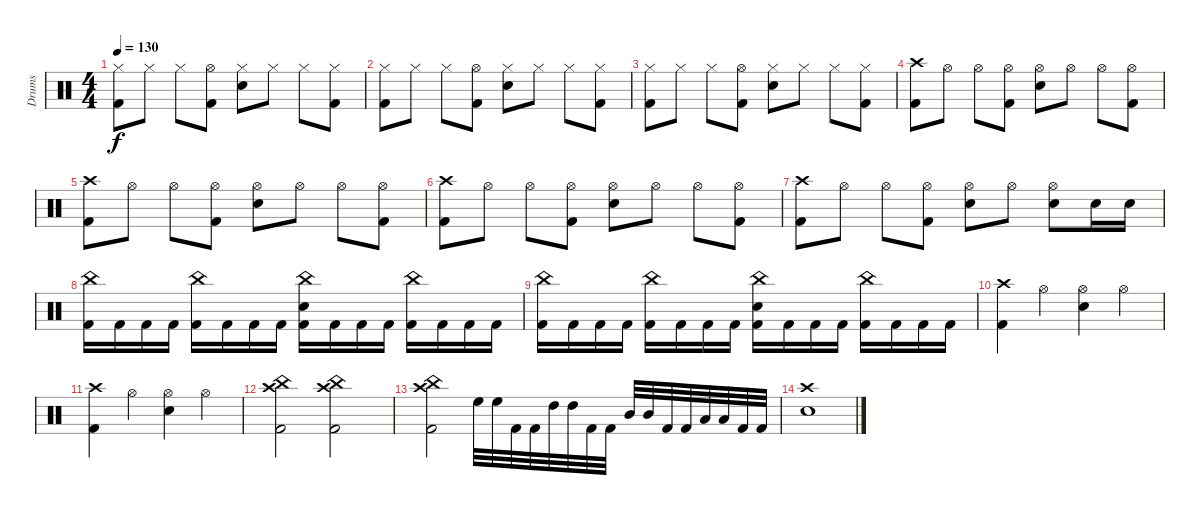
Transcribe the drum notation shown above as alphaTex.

\track ("Drums" "Drums") {instrument percussion}
\staff {score}
\articulation defaults
\ts (4 4)
\tempo 130
\clef neutral
\ks c
("Hi-Hat (closed)" "Kick (hit) 2").8{dy f} "Hi-Hat (closed)".8 "Hi-Hat (closed)".8 ("Hi-Hat (open)" "Kick (hit) 2").8 ("Hi-Hat (closed)" "Snare (hit) 2").8 "Hi-Hat (closed)".8 "Hi-Hat (closed)".8 ("Hi-Hat (closed)" "Kick (hit) 2").8 |
("Hi-Hat (closed)" "Kick (hit) 2").8 "Hi-Hat (closed)".8 "Hi-Hat (closed)".8 ("Hi-Hat (open)" "Kick (hit) 2").8 ("Hi-Hat (closed)" "Snare (hit) 2").8 "Hi-Hat (closed)".8 "Hi-Hat (closed)".8 ("Hi-Hat (closed)" "Kick (hit) 2").8 |
("Hi-Hat (closed)" "Kick (hit) 2").8 "Hi-Hat (closed)".8 "Hi-Hat (closed)".8 ("Hi-Hat (open)" "Kick (hit) 2").8 ("Hi-Hat (closed)" "Snare (hit) 2").8 "Hi-Hat (closed)".8 "Hi-Hat (closed)".8 ("Hi-Hat (closed)" "Kick (hit) 2").8 |
("Crash high (hit)" "Kick (hit) 2").8 "Hi-Hat (open)".8 "Hi-Hat (open)".8 ("Hi-Hat (open)" "Kick (hit) 2").8 ("Hi-Hat (open)" "Snare (hit) 2").8 "Hi-Hat (open)".8 "Hi-Hat (open)".8 ("Hi-Hat (open)" "Kick (hit) 2").8 |
("Crash high (hit)" "Kick (hit) 2").8 "Hi-Hat (open)".8 "Hi-Hat (open)".8 ("Hi-Hat (open)" "Kick (hit) 2").8 ("Hi-Hat (open)" "Snare (hit) 2").8 "Hi-Hat (open)".8 "Hi-Hat (open)".8 ("Hi-Hat (open)" "Kick (hit) 2").8 |
("Crash high (hit)" "Kick (hit) 2").8 "Hi-Hat (open)".8 "Hi-Hat (open)".8 ("Hi-Hat (open)" "Kick (hit) 2").8 ("Hi-Hat (open)" "Snare (hit) 2").8 "Hi-Hat (open)".8 "Hi-Hat (open)".8 ("Hi-Hat (open)" "Kick (hit) 2").8 |
("Crash high (hit)" "Kick (hit) 2").8 "Hi-Hat (open)".8 "Hi-Hat (open)".8 ("Hi-Hat (open)" "Kick (hit) 2").8 ("Hi-Hat (open)" "Snare (hit) 2").8 "Hi-Hat (open)".8 ("Hi-Hat (open)" "Snare (hit) 2").8 "Snare (hit) 2".16 "Snare (hit) 2".16 |
("China (hit)" "Kick (hit) 2").16 "Kick (hit) 2".16 "Kick (hit) 2".16 "Kick (hit) 2".16 ("China (hit)" "Kick (hit) 2").16 "Kick (hit) 2".16 "Kick (hit) 2".16 "Kick (hit) 2".16 ("China (hit)" "Snare (hit) 2" "Kick (hit) 2").16 "Kick (hit) 2".16 "Kick (hit) 2".16 "Kick (hit) 2".16 ("China (hit)" "Kick (hit) 2").16 "Kick (hit) 2".16 "Kick (hit) 2".16 "Kick (hit) 2".16 |
("China (hit)" "Kick (hit) 2").16 "Kick (hit) 2".16 "Kick (hit) 2".16 "Kick (hit) 2".16 ("China (hit)" "Kick (hit) 2").16 "Kick (hit) 2".16 "Kick (hit) 2".16 "Kick (hit) 2".16 ("China (hit)" "Snare (hit) 2" "Kick (hit) 2").16 "Kick (hit) 2".16 "Kick (hit) 2".16 "Kick (hit) 2".16 ("China (hit)" "Kick (hit) 2").16 "Kick (hit) 2".16 "Kick (hit) 2".16 "Kick (hit) 2".16 |
("Crash high (hit)" "Kick (hit) 2").4 "Hi-Hat (open)".4 ("Hi-Hat (open)" "Snare (hit) 2").4 "Hi-Hat (open)".4 |
("Crash high (hit)" "Kick (hit) 2").4 "Hi-Hat (open)".4 ("Hi-Hat (open)" "Snare (hit) 2").4 "Hi-Hat (open)".4 |
("Crash high (hit)" "China (hit)" "Kick (hit) 2").2 ("Crash high (hit)" "China (hit)" "Kick (hit) 2").2 |
("Crash high (hit)" "China (hit)" "Kick (hit) 2").2 "High Floor Tom (hit)".32 "High Floor Tom (hit)".32 "Kick (hit) 2".32 "Kick (hit) 2".32 "High Tom (hit)".32 "High Tom (hit)".32 "Kick (hit) 2".32 "Kick (hit) 2".32 "Mid Tom (hit)".32 "Mid Tom (hit)".32 "Kick (hit) 2".32 "Kick (hit) 2".32 "Low Tom (hit)".32 "Low Tom (hit)".32 "Kick (hit) 2".32 "Kick (hit) 2".32 |
("Crash high (hit)" "Snare (hit) 2").1
